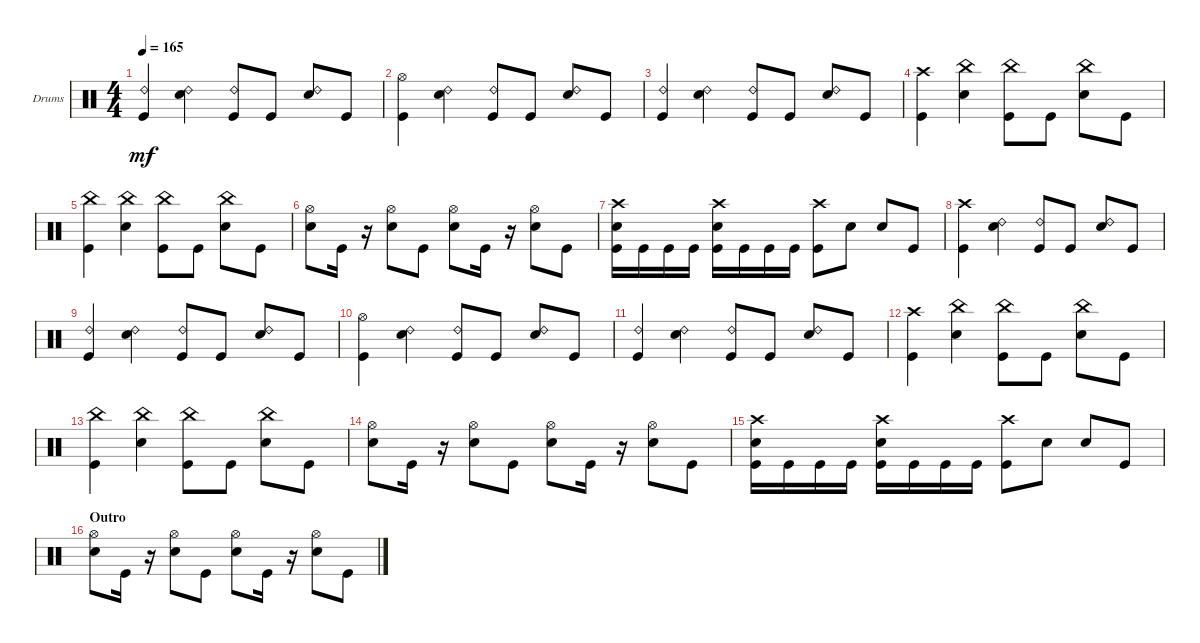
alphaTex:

\bracketExtendMode groupsimilarinstruments
\firstSystemTrackNameOrientation horizontal
\otherSystemsTrackNameOrientation horizontal
\track ("Drums" "Drums") {solo instrument percussion}
\staff {score}
\articulation defaults
\ts (4 4)
\tempo 165
\clef neutral
\ks c
("Kick (hit)" "Ride (bell) 2").4{dy mf} ("Snare (hit) 2" "Ride (bell) 2").4 ("Kick (hit)" "Ride (bell) 2").8 "Kick (hit)".8 ("Snare (hit) 2" "Ride (bell) 2").8 "Kick (hit)".8 |
("Kick (hit)" "Hi-Hat (open)").4 ("Snare (hit) 2" "Ride (bell) 2").4 ("Kick (hit)" "Ride (bell) 2").8 "Kick (hit)".8 ("Snare (hit) 2" "Ride (bell) 2").8 "Kick (hit)".8 |
("Kick (hit)" "Ride (bell) 2").4 ("Snare (hit) 2" "Ride (bell) 2").4 ("Kick (hit)" "Ride (bell) 2").8 "Kick (hit)".8 ("Snare (hit) 2" "Ride (bell) 2").8 "Kick (hit)".8 |
("Kick (hit)" "Crash high (hit)").4 ("Snare (hit) 2" "China (hit)").4 ("Kick (hit)" "China (hit)").8 "Kick (hit)".8 ("Snare (hit) 2" "China (hit)").8 "Kick (hit)".8 |
("Kick (hit)" "China (hit)").4 ("Snare (hit) 2" "China (hit)").4 ("Kick (hit)" "China (hit)").8 "Kick (hit)".8 ("Snare (hit) 2" "China (hit)").8 "Kick (hit)".8 |
("Snare (hit) 2" "Hi-Hat (open)").8 "Kick (hit)".16 r.16 ("Snare (hit) 2" "Hi-Hat (open)").8 "Kick (hit)".8 ("Snare (hit) 2" "Hi-Hat (open)").8 "Kick (hit)".16 r.16 ("Snare (hit) 2" "Hi-Hat (open)").8 "Kick (hit)".8 |
("Kick (hit)" "Snare (hit) 2" "Crash high (hit)").16 "Kick (hit)".16 "Kick (hit)".16 "Kick (hit)".16 ("Kick (hit)" "Snare (hit) 2" "Crash high (hit)").16 "Kick (hit)".16 "Kick (hit)".16 "Kick (hit)".16 ("Crash high (hit)" "Kick (hit)").8 "Snare (hit) 2".8 "Snare (hit) 2".8 "Kick (hit)".8 |
("Kick (hit)" "Crash high (hit)").4 ("Snare (hit) 2" "Ride (bell) 2").4 ("Kick (hit)" "Ride (bell) 2").8 "Kick (hit)".8 ("Snare (hit) 2" "Ride (bell) 2").8 "Kick (hit)".8 |
("Kick (hit)" "Ride (bell) 2").4 ("Snare (hit) 2" "Ride (bell) 2").4 ("Kick (hit)" "Ride (bell) 2").8 "Kick (hit)".8 ("Snare (hit) 2" "Ride (bell) 2").8 "Kick (hit)".8 |
("Kick (hit)" "Hi-Hat (open)").4 ("Snare (hit) 2" "Ride (bell) 2").4 ("Kick (hit)" "Ride (bell) 2").8 "Kick (hit)".8 ("Snare (hit) 2" "Ride (bell) 2").8 "Kick (hit)".8 |
("Kick (hit)" "Ride (bell) 2").4 ("Snare (hit) 2" "Ride (bell) 2").4 ("Kick (hit)" "Ride (bell) 2").8 "Kick (hit)".8 ("Snare (hit) 2" "Ride (bell) 2").8 "Kick (hit)".8 |
("Kick (hit)" "Crash high (hit)").4 ("Snare (hit) 2" "China (hit)").4 ("Kick (hit)" "China (hit)").8 "Kick (hit)".8 ("Snare (hit) 2" "China (hit)").8 "Kick (hit)".8 |
("Kick (hit)" "China (hit)").4 ("Snare (hit) 2" "China (hit)").4 ("Kick (hit)" "China (hit)").8 "Kick (hit)".8 ("Snare (hit) 2" "China (hit)").8 "Kick (hit)".8 |
("Snare (hit) 2" "Hi-Hat (open)").8 "Kick (hit)".16 r.16 ("Snare (hit) 2" "Hi-Hat (open)").8 "Kick (hit)".8 ("Snare (hit) 2" "Hi-Hat (open)").8 "Kick (hit)".16 r.16 ("Snare (hit) 2" "Hi-Hat (open)").8 "Kick (hit)".8 |
("Kick (hit)" "Snare (hit) 2" "Crash high (hit)").16 "Kick (hit)".16 "Kick (hit)".16 "Kick (hit)".16 ("Kick (hit)" "Snare (hit) 2" "Crash high (hit)").16 "Kick (hit)".16 "Kick (hit)".16 "Kick (hit)".16 ("Crash high (hit)" "Kick (hit)").8 "Snare (hit) 2".8 "Snare (hit) 2".8 "Kick (hit)".8 |
\section ("" "Outro")
("Snare (hit) 2" "Hi-Hat (open)").8 "Kick (hit)".16 r.16 ("Snare (hit) 2" "Hi-Hat (open)").8 "Kick (hit)".8 ("Snare (hit) 2" "Hi-Hat (open)").8 "Kick (hit)".16 r.16 ("Snare (hit) 2" "Hi-Hat (open)").8 "Kick (hit)".8
